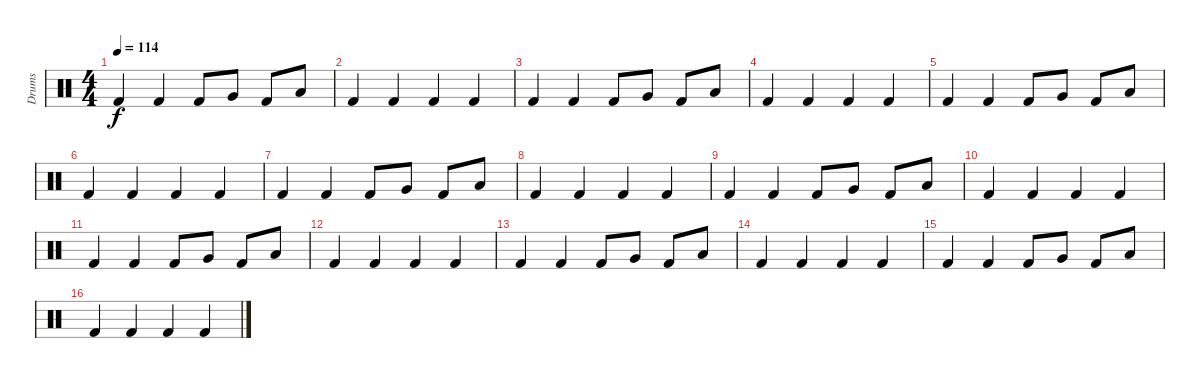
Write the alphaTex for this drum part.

\track ("Drums" "Drums") {instrument percussion}
\staff {score}
\articulation defaults
\ts (4 4)
\tempo 114
\clef neutral
\ks c "Kick (hit) 2".4{dy f} "Kick (hit) 2".4 "Kick (hit) 2".8 "Very Low Tom (hit)".8 "Kick (hit) 2".8 "Low Floor Tom (hit)".8
|
"Kick (hit) 2".4 "Kick (hit) 2".4 "Kick (hit) 2".4 "Kick (hit) 2".4 |
"Kick (hit) 2".4 "Kick (hit) 2".4 "Kick (hit) 2".8 "Very Low Tom (hit)".8 "Kick (hit) 2".8 "Low Floor Tom (hit)".8 |
"Kick (hit) 2".4 "Kick (hit) 2".4 "Kick (hit) 2".4 "Kick (hit) 2".4 |
"Kick (hit) 2".4 "Kick (hit) 2".4 "Kick (hit) 2".8 "Very Low Tom (hit)".8 "Kick (hit) 2".8 "Low Floor Tom (hit)".8 |
"Kick (hit) 2".4 "Kick (hit) 2".4 "Kick (hit) 2".4 "Kick (hit) 2".4 |
"Kick (hit) 2".4 "Kick (hit) 2".4 "Kick (hit) 2".8 "Very Low Tom (hit)".8 "Kick (hit) 2".8 "Low Floor Tom (hit)".8 |
"Kick (hit) 2".4 "Kick (hit) 2".4 "Kick (hit) 2".4 "Kick (hit) 2".4 |
"Kick (hit) 2".4 "Kick (hit) 2".4 "Kick (hit) 2".8 "Very Low Tom (hit)".8 "Kick (hit) 2".8 "Low Floor Tom (hit)".8 |
"Kick (hit) 2".4 "Kick (hit) 2".4 "Kick (hit) 2".4 "Kick (hit) 2".4 |
"Kick (hit) 2".4 "Kick (hit) 2".4 "Kick (hit) 2".8 "Very Low Tom (hit)".8 "Kick (hit) 2".8 "Low Floor Tom (hit)".8 |
"Kick (hit) 2".4 "Kick (hit) 2".4 "Kick (hit) 2".4 "Kick (hit) 2".4 |
"Kick (hit) 2".4 "Kick (hit) 2".4 "Kick (hit) 2".8 "Very Low Tom (hit)".8 "Kick (hit) 2".8 "Low Floor Tom (hit)".8 |
"Kick (hit) 2".4 "Kick (hit) 2".4 "Kick (hit) 2".4 "Kick (hit) 2".4 |
"Kick (hit) 2".4 "Kick (hit) 2".4 "Kick (hit) 2".8 "Very Low Tom (hit)".8 "Kick (hit) 2".8 "Low Floor Tom (hit)".8 |
"Kick (hit) 2".4 "Kick (hit) 2".4 "Kick (hit) 2".4 "Kick (hit) 2".4
